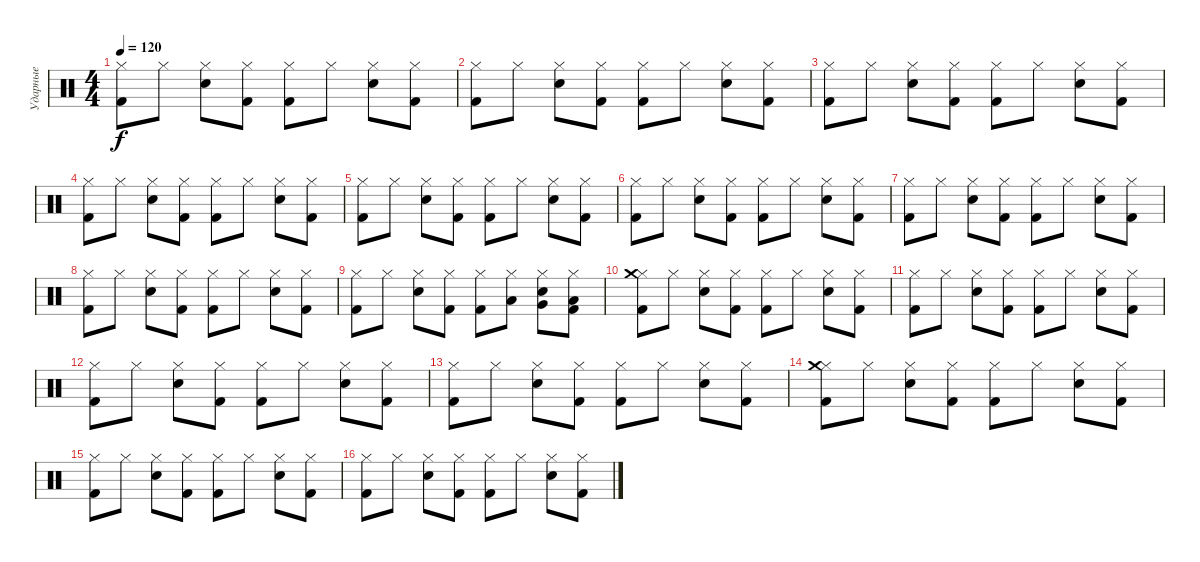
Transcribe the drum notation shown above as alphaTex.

\track ("Ударные" "Ударные") {instrument percussion}
\staff {score}
\articulation defaults
\ts (4 4)
\tempo 120
\clef neutral
\ks c
("Kick (hit) 2" "Hi-Hat (closed)").8{dy f} "Hi-Hat (closed)".8 ("Electric Snare (hit)" "Hi-Hat (closed)").8 ("Kick (hit) 2" "Hi-Hat (closed)").8 ("Kick (hit) 2" "Hi-Hat (closed)").8 "Hi-Hat (closed)".8 ("Electric Snare (hit)" "Hi-Hat (closed)").8 ("Kick (hit) 2" "Hi-Hat (closed)").8 |
("Kick (hit) 2" "Hi-Hat (closed)").8 "Hi-Hat (closed)".8 ("Electric Snare (hit)" "Hi-Hat (closed)").8 ("Kick (hit) 2" "Hi-Hat (closed)").8 ("Kick (hit) 2" "Hi-Hat (closed)").8 "Hi-Hat (closed)".8 ("Electric Snare (hit)" "Hi-Hat (closed)").8 ("Kick (hit) 2" "Hi-Hat (closed)").8 |
("Kick (hit) 2" "Hi-Hat (closed)").8 "Hi-Hat (closed)".8 ("Electric Snare (hit)" "Hi-Hat (closed)").8 ("Kick (hit) 2" "Hi-Hat (closed)").8 ("Kick (hit) 2" "Hi-Hat (closed)").8 "Hi-Hat (closed)".8 ("Electric Snare (hit)" "Hi-Hat (closed)").8 ("Kick (hit) 2" "Hi-Hat (closed)").8 |
("Kick (hit) 2" "Hi-Hat (closed)").8 "Hi-Hat (closed)".8 ("Electric Snare (hit)" "Hi-Hat (closed)").8 ("Kick (hit) 2" "Hi-Hat (closed)").8 ("Kick (hit) 2" "Hi-Hat (closed)").8 "Hi-Hat (closed)".8 ("Electric Snare (hit)" "Hi-Hat (closed)").8 ("Kick (hit) 2" "Hi-Hat (closed)").8 |
("Kick (hit) 2" "Hi-Hat (closed)").8 "Hi-Hat (closed)".8 ("Electric Snare (hit)" "Hi-Hat (closed)").8 ("Kick (hit) 2" "Hi-Hat (closed)").8 ("Kick (hit) 2" "Hi-Hat (closed)").8 "Hi-Hat (closed)".8 ("Electric Snare (hit)" "Hi-Hat (closed)").8 ("Kick (hit) 2" "Hi-Hat (closed)").8 |
("Kick (hit) 2" "Hi-Hat (closed)").8 "Hi-Hat (closed)".8 ("Electric Snare (hit)" "Hi-Hat (closed)").8 ("Kick (hit) 2" "Hi-Hat (closed)").8 ("Kick (hit) 2" "Hi-Hat (closed)").8 "Hi-Hat (closed)".8 ("Electric Snare (hit)" "Hi-Hat (closed)").8 ("Kick (hit) 2" "Hi-Hat (closed)").8 |
("Kick (hit) 2" "Hi-Hat (closed)").8 "Hi-Hat (closed)".8 ("Electric Snare (hit)" "Hi-Hat (closed)").8 ("Kick (hit) 2" "Hi-Hat (closed)").8 ("Kick (hit) 2" "Hi-Hat (closed)").8 "Hi-Hat (closed)".8 ("Electric Snare (hit)" "Hi-Hat (closed)").8 ("Kick (hit) 2" "Hi-Hat (closed)").8 |
("Kick (hit) 2" "Hi-Hat (closed)").8 "Hi-Hat (closed)".8 ("Electric Snare (hit)" "Hi-Hat (closed)").8 ("Kick (hit) 2" "Hi-Hat (closed)").8 ("Kick (hit) 2" "Hi-Hat (closed)").8 "Hi-Hat (closed)".8 ("Electric Snare (hit)" "Hi-Hat (closed)").8 ("Kick (hit) 2" "Hi-Hat (closed)").8 |
("Kick (hit) 2" "Hi-Hat (closed)").8 "Hi-Hat (closed)".8 ("Electric Snare (hit)" "Hi-Hat (closed)").8 ("Kick (hit) 2" "Hi-Hat (closed)").8 ("Kick (hit) 2" "Hi-Hat (closed)").8 ("Hi-Hat (closed)" "Low Tom (hit)").8 ("Electric Snare (hit)" "Hi-Hat (closed)" "Very Low Tom (hit)").8 ("Kick (hit) 2" "Hi-Hat (closed)" "Low Floor Tom (hit)").8 |
("Kick (hit) 2" "Hi-Hat (closed)" "Crash medium (hit)").8 "Hi-Hat (closed)".8 ("Electric Snare (hit)" "Hi-Hat (closed)").8 ("Kick (hit) 2" "Hi-Hat (closed)").8 ("Kick (hit) 2" "Hi-Hat (closed)").8 "Hi-Hat (closed)".8 ("Electric Snare (hit)" "Hi-Hat (closed)").8 ("Kick (hit) 2" "Hi-Hat (closed)").8 |
("Kick (hit) 2" "Hi-Hat (closed)").8 "Hi-Hat (closed)".8 ("Electric Snare (hit)" "Hi-Hat (closed)").8 ("Kick (hit) 2" "Hi-Hat (closed)").8 ("Kick (hit) 2" "Hi-Hat (closed)").8 "Hi-Hat (closed)".8 ("Electric Snare (hit)" "Hi-Hat (closed)").8 ("Kick (hit) 2" "Hi-Hat (closed)").8 |
("Kick (hit) 2" "Hi-Hat (closed)").8 "Hi-Hat (closed)".8 ("Electric Snare (hit)" "Hi-Hat (closed)").8 ("Kick (hit) 2" "Hi-Hat (closed)").8 ("Kick (hit) 2" "Hi-Hat (closed)").8 "Hi-Hat (closed)".8 ("Electric Snare (hit)" "Hi-Hat (closed)").8 ("Kick (hit) 2" "Hi-Hat (closed)").8 |
("Kick (hit) 2" "Hi-Hat (closed)").8 "Hi-Hat (closed)".8 ("Electric Snare (hit)" "Hi-Hat (closed)").8 ("Kick (hit) 2" "Hi-Hat (closed)").8 ("Kick (hit) 2" "Hi-Hat (closed)").8 "Hi-Hat (closed)".8 ("Electric Snare (hit)" "Hi-Hat (closed)").8 ("Kick (hit) 2" "Hi-Hat (closed)").8 |
("Kick (hit) 2" "Hi-Hat (closed)" "Crash medium (hit)").8 "Hi-Hat (closed)".8 ("Electric Snare (hit)" "Hi-Hat (closed)").8 ("Kick (hit) 2" "Hi-Hat (closed)").8 ("Kick (hit) 2" "Hi-Hat (closed)").8 "Hi-Hat (closed)".8 ("Electric Snare (hit)" "Hi-Hat (closed)").8 ("Kick (hit) 2" "Hi-Hat (closed)").8 |
("Kick (hit) 2" "Hi-Hat (closed)").8 "Hi-Hat (closed)".8 ("Electric Snare (hit)" "Hi-Hat (closed)").8 ("Kick (hit) 2" "Hi-Hat (closed)").8 ("Kick (hit) 2" "Hi-Hat (closed)").8 "Hi-Hat (closed)".8 ("Electric Snare (hit)" "Hi-Hat (closed)").8 ("Kick (hit) 2" "Hi-Hat (closed)").8 |
("Kick (hit) 2" "Hi-Hat (closed)").8 "Hi-Hat (closed)".8 ("Electric Snare (hit)" "Hi-Hat (closed)").8 ("Kick (hit) 2" "Hi-Hat (closed)").8 ("Kick (hit) 2" "Hi-Hat (closed)").8 "Hi-Hat (closed)".8 ("Electric Snare (hit)" "Hi-Hat (closed)").8 ("Kick (hit) 2" "Hi-Hat (closed)").8
